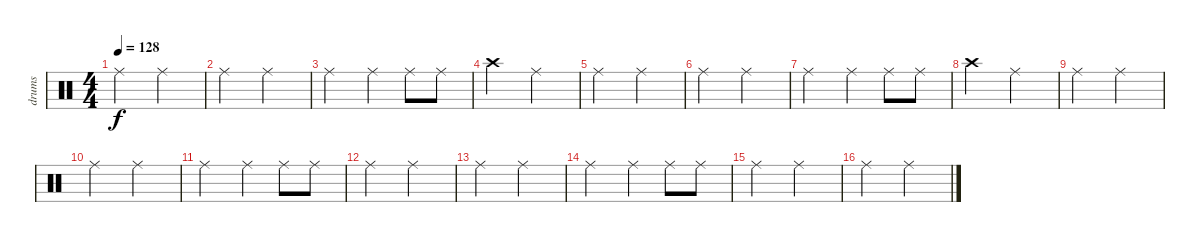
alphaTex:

\track ("drums" "drums") {instrument percussion}
\staff {score}
\articulation defaults
\ts (4 4)
\tempo 128
\clef neutral
\ks c "Ride (middle)".2{dy f} "Ride (middle)".2
|
"Ride (middle)".2 "Ride (middle)".2 |
"Ride (middle)".2 "Ride (middle)".4 "Ride (middle)".8 "Ride (middle)".8 |
"Crash high (hit)".2 "Ride (middle)".2 |
"Ride (middle)".2 "Ride (middle)".2 |
"Ride (middle)".2 "Ride (middle)".2 |
"Ride (middle)".2 "Ride (middle)".4 "Ride (middle)".8 "Ride (middle)".8 |
"Crash high (hit)".2 "Ride (middle)".2 |
"Ride (middle)".2 "Ride (middle)".2 |
"Ride (middle)".2 "Ride (middle)".2 |
"Ride (middle)".2 "Ride (middle)".4 "Ride (middle)".8 "Ride (middle)".8 |
"Ride (middle)".2 "Ride (middle)".2 |
"Ride (middle)".2 "Ride (middle)".2 |
"Ride (middle)".2 "Ride (middle)".4 "Ride (middle)".8 "Ride (middle)".8 |
"Ride (middle)".2 "Ride (middle)".2 |
"Ride (middle)".2 "Ride (middle)".2
